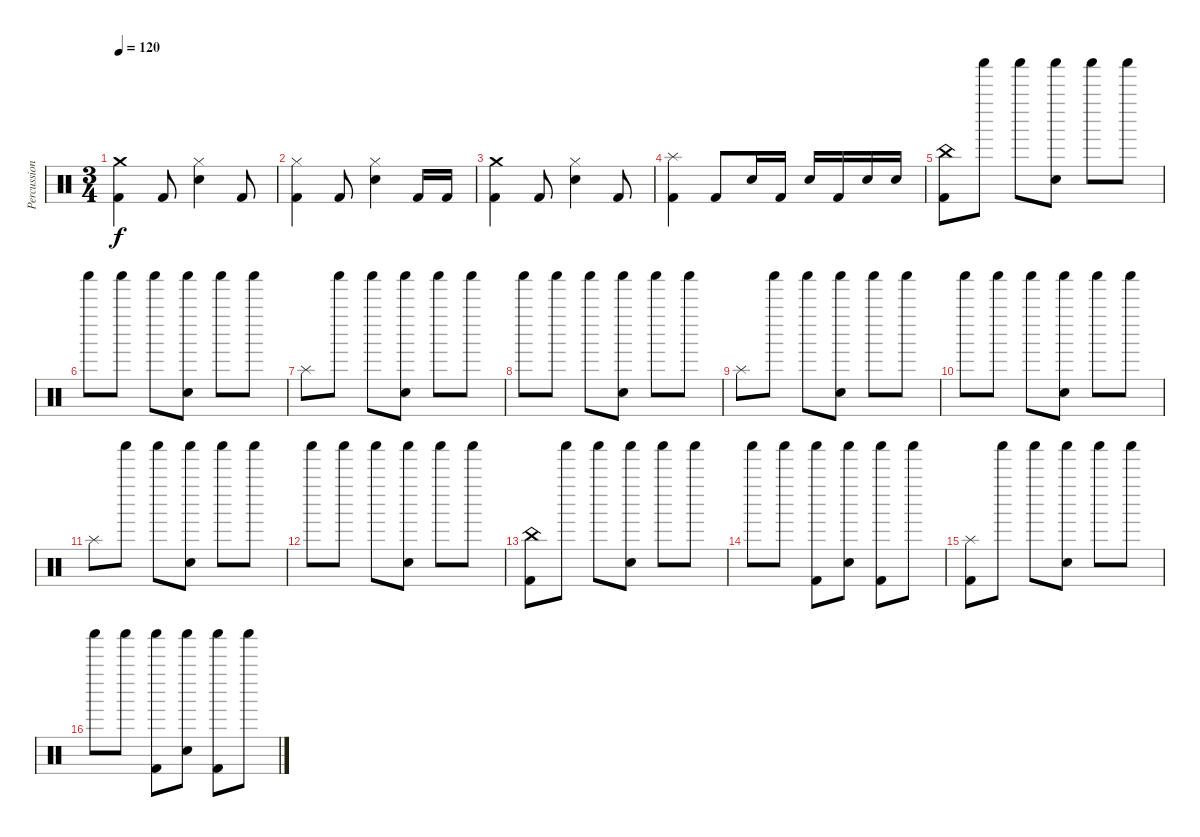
\track ("Percussion" "Percussion") {instrument percussion}
\staff {score}
\articulation defaults
\ts (3 4)
\tempo 120
\clef neutral
\ks c
("Crash medium (hit)" "Kick (hit) 2").4{dy f} "Kick (hit) 2".8 ("Hi-Hat (closed)" "Electric Snare (hit)").4 "Kick (hit) 2".8 |
("Hi-Hat (closed)" "Kick (hit) 2").4 "Kick (hit) 2".8 ("Hi-Hat (closed)" "Electric Snare (hit)").4 "Kick (hit) 2".16 "Kick (hit) 2".16 |
("Crash medium (hit)" "Kick (hit) 2").4 "Kick (hit) 2".8 ("Hi-Hat (closed)" "Electric Snare (hit)").4 "Kick (hit) 2".8 |
("Splash (hit)" "Kick (hit) 2").4 "Kick (hit) 2".8 "Electric Snare (hit)".16 "Kick (hit) 2".16 "Electric Snare (hit)".16 "Kick (hit) 2".16 "Electric Snare (hit)".16 "Electric Snare (hit)".16 |
("China (hit)" "Kick (hit) 2").8 "Shaker (hit)".8 "Shaker (hit)".8 ("Shaker (hit)" "Hand Clap (hit)").8 "Shaker (hit)".8 "Shaker (hit)".8 |
"Shaker (hit)".8 "Shaker (hit)".8 "Shaker (hit)".8 ("Shaker (hit)" "Hand Clap (hit)").8 "Shaker (hit)".8 "Shaker (hit)".8 |
"Splash (hit)".8 "Shaker (hit)".8 "Shaker (hit)".8 ("Shaker (hit)" "Hand Clap (hit)").8 "Shaker (hit)".8 "Shaker (hit)".8 |
"Shaker (hit)".8 "Shaker (hit)".8 "Shaker (hit)".8 ("Shaker (hit)" "Hand Clap (hit)").8 "Shaker (hit)".8 "Shaker (hit)".8 |
"Splash (hit)".8 "Shaker (hit)".8 "Shaker (hit)".8 ("Shaker (hit)" "Hand Clap (hit)").8 "Shaker (hit)".8 "Shaker (hit)".8 |
"Shaker (hit)".8 "Shaker (hit)".8 "Shaker (hit)".8 ("Shaker (hit)" "Hand Clap (hit)").8 "Shaker (hit)".8 "Shaker (hit)".8 |
"Splash (hit)".8 "Shaker (hit)".8 "Shaker (hit)".8 ("Shaker (hit)" "Hand Clap (hit)").8 "Shaker (hit)".8 "Shaker (hit)".8 |
"Shaker (hit)".8 "Shaker (hit)".8 "Shaker (hit)".8 ("Shaker (hit)" "Hand Clap (hit)").8 "Shaker (hit)".8 "Shaker (hit)".8 |
("China (hit)" "Kick (hit) 2").8 "Shaker (hit)".8 "Shaker (hit)".8 ("Shaker (hit)" "Hand Clap (hit)").8 "Shaker (hit)".8 "Shaker (hit)".8 |
"Shaker (hit)".8 "Shaker (hit)".8 ("Shaker (hit)" "Kick (hit) 2").8 ("Shaker (hit)" "Hand Clap (hit)").8 ("Shaker (hit)" "Kick (hit) 2").8 "Shaker (hit)".8 |
("Splash (hit)" "Kick (hit) 2").8 "Shaker (hit)".8 "Shaker (hit)".8 ("Shaker (hit)" "Hand Clap (hit)").8 "Shaker (hit)".8 "Shaker (hit)".8 |
"Shaker (hit)".8 "Shaker (hit)".8 ("Shaker (hit)" "Kick (hit) 2").8 ("Shaker (hit)" "Hand Clap (hit)").8 ("Shaker (hit)" "Kick (hit) 2").8 "Shaker (hit)".8
